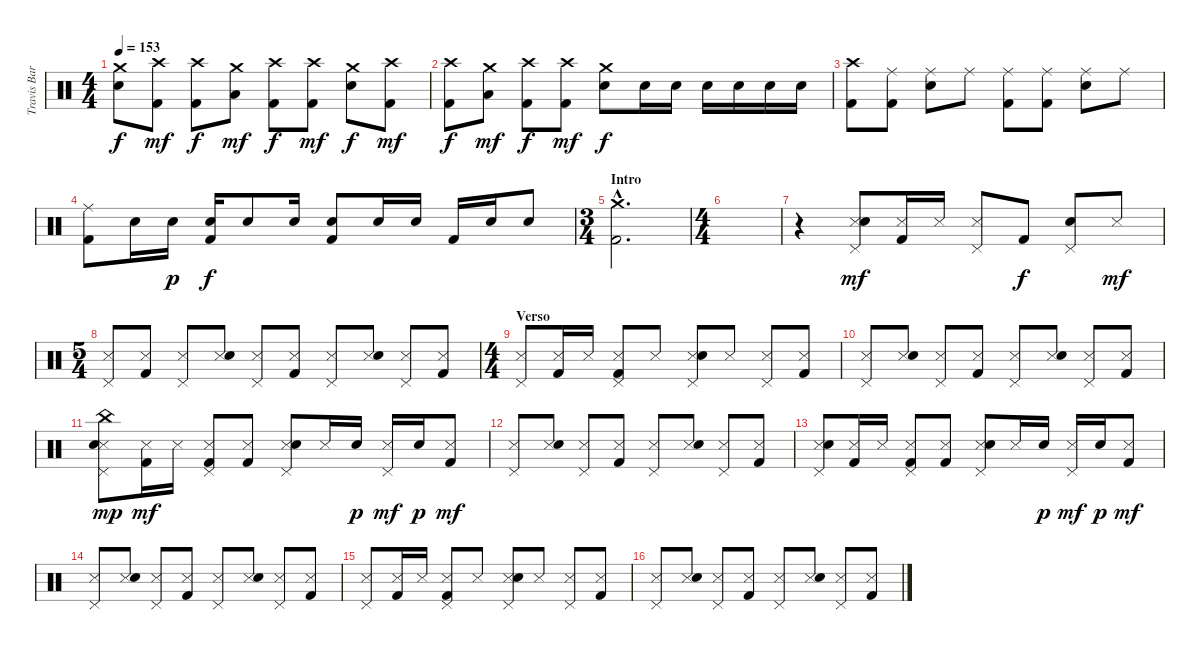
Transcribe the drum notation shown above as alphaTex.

\track ("Travis Barker" "Travis Bar") {instrument percussion}
\staff {score}
\articulation defaults
\ts (4 4)
\tempo 153
\clef neutral
\ks c
("Crash medium (hit)" "Electric Snare (hit)").8{dy f} ("Crash high (hit)" "Kick (hit) 2").8{dy mf} ("Crash high (hit)" "Kick (hit) 2").8{dy f} ("Crash medium (hit)" "Low Tom (hit)").8{dy mf} ("Crash high (hit)" "Kick (hit) 2").8{dy f} ("Crash high (hit)" "Kick (hit) 2").8{dy mf} ("Crash medium (hit)" "Electric Snare (hit)").8{dy f} ("Crash high (hit)" "Kick (hit) 2").8{dy mf} |
("Crash high (hit)" "Kick (hit) 2").8{dy f} ("Crash medium (hit)" "Low Tom (hit)").8{dy mf} ("Crash high (hit)" "Kick (hit) 2").8{dy f} ("Crash high (hit)" "Kick (hit) 2").8{dy mf} ("Crash medium (hit)" "Electric Snare (hit)").8{dy f} "Electric Snare (hit)".16 "Electric Snare (hit)".16 "Electric Snare (hit)".16 "Electric Snare (hit)".16 "Electric Snare (hit)".16 "Electric Snare (hit)".16 |
("Crash high (hit)" "Kick (hit) 2").8 ("Ride (middle)" "Kick (hit) 2").8 ("Ride (middle)" "Electric Snare (hit)").8 "Ride (middle)".8 ("Ride (middle)" "Kick (hit) 2").8 ("Ride (middle)" "Kick (hit) 2").8 ("Ride (middle)" "Electric Snare (hit)").8 "Ride (middle)".8 |
("Ride (middle)" "Kick (hit) 2").8 "Electric Snare (hit)".16 "Electric Snare (hit)".16{dy p} ("Electric Snare (hit)" "Kick (hit) 2").16{dy f} "Electric Snare (hit)".8 "Electric Snare (hit)".16 ("Electric Snare (hit)" "Kick (hit) 2").8 "Electric Snare (hit)".16 "Electric Snare (hit)".16 "Kick (hit) 2".16 "Electric Snare (hit)".16 "Electric Snare (hit)".8 |
\ts (3 4)
\section ("" "Intro")
("Crash medium (hit)"{hac} "Kick (hit) 2"{hac}).2{d} |
\ts (4 4)
|
r.4 ("Snare (side stick) 3" "Electric Snare (hit)" "Pedal Hi-Hat (hit)").8{dy mf} ("Snare (side stick) 3" "Kick (hit) 2").16 "Snare (side stick) 3".16 ("Snare (side stick) 3" "Pedal Hi-Hat (hit)").8 "Kick (hit) 2".8{dy f} ("Electric Snare (hit)" "Pedal Hi-Hat (hit)").8 "Snare (side stick) 3".8{dy mf} |
\ts (5 4)
("Snare (side stick) 3" "Pedal Hi-Hat (hit)").8 ("Snare (side stick) 3" "Kick (hit) 2").8 ("Snare (side stick) 3" "Pedal Hi-Hat (hit)").8 ("Snare (side stick) 3" "Electric Snare (hit)").8 ("Snare (side stick) 3" "Pedal Hi-Hat (hit)").8 ("Snare (side stick) 3" "Kick (hit) 2").8 ("Snare (side stick) 3" "Pedal Hi-Hat (hit)").8 ("Snare (side stick) 3" "Electric Snare (hit)").8 ("Snare (side stick) 3" "Pedal Hi-Hat (hit)").8 ("Snare (side stick) 3" "Kick (hit) 2").8 |
\ts (4 4)
\section ("" "Verso")
("Snare (side stick) 3" "Pedal Hi-Hat (hit)").8 ("Snare (side stick) 3" "Kick (hit) 2").16 "Snare (side stick) 3".16 ("Snare (side stick) 3" "Kick (hit) 2" "Pedal Hi-Hat (hit)").8 "Snare (side stick) 3".8 ("Snare (side stick) 3" "Electric Snare (hit)" "Pedal Hi-Hat (hit)").8 "Snare (side stick) 3".8 ("Snare (side stick) 3" "Pedal Hi-Hat (hit)").8 ("Snare (side stick) 3" "Kick (hit) 2").8 |
("Snare (side stick) 3" "Pedal Hi-Hat (hit)").8 ("Snare (side stick) 3" "Electric Snare (hit)").8 ("Snare (side stick) 3" "Pedal Hi-Hat (hit)").8 ("Snare (side stick) 3" "Kick (hit) 2").8 ("Snare (side stick) 3" "Pedal Hi-Hat (hit)").8 ("Snare (side stick) 3" "Electric Snare (hit)").8 ("Snare (side stick) 3" "Pedal Hi-Hat (hit)").8 ("Snare (side stick) 3" "Kick (hit) 2").8 |
("Snare (side stick) 3" "Electric Snare (hit)" "China (hit)" "Pedal Hi-Hat (hit)").8{dy mp} ("Snare (side stick) 3" "Kick (hit) 2").16{dy mf} "Snare (side stick) 3".16 ("Snare (side stick) 3" "Kick (hit) 2" "Pedal Hi-Hat (hit)").8 ("Snare (side stick) 3" "Kick (hit) 2").8 ("Snare (side stick) 3" "Electric Snare (hit)" "Pedal Hi-Hat (hit)").8 "Snare (side stick) 3".16 "Electric Snare (hit)".16{dy p} ("Snare (side stick) 3" "Pedal Hi-Hat (hit)").16{dy mf} "Electric Snare (hit)".16{dy p} ("Snare (side stick) 3" "Kick (hit) 2").8{dy mf} |
("Snare (side stick) 3" "Pedal Hi-Hat (hit)").8 ("Snare (side stick) 3" "Electric Snare (hit)").8 ("Snare (side stick) 3" "Pedal Hi-Hat (hit)").8 ("Snare (side stick) 3" "Kick (hit) 2").8 ("Snare (side stick) 3" "Pedal Hi-Hat (hit)").8 ("Snare (side stick) 3" "Electric Snare (hit)").8 ("Snare (side stick) 3" "Pedal Hi-Hat (hit)").8 ("Snare (side stick) 3" "Kick (hit) 2").8 |
("Snare (side stick) 3" "Electric Snare (hit)" "Pedal Hi-Hat (hit)").8 ("Snare (side stick) 3" "Kick (hit) 2").16 "Snare (side stick) 3".16 ("Snare (side stick) 3" "Kick (hit) 2" "Pedal Hi-Hat (hit)").8 ("Snare (side stick) 3" "Kick (hit) 2").8 ("Snare (side stick) 3" "Electric Snare (hit)" "Pedal Hi-Hat (hit)").8 "Snare (side stick) 3".16 "Electric Snare (hit)".16{dy p} ("Snare (side stick) 3" "Pedal Hi-Hat (hit)").16{dy mf} "Electric Snare (hit)".16{dy p} ("Snare (side stick) 3" "Kick (hit) 2").8{dy mf} |
("Snare (side stick) 3" "Pedal Hi-Hat (hit)").8 ("Snare (side stick) 3" "Electric Snare (hit)").8 ("Snare (side stick) 3" "Pedal Hi-Hat (hit)").8 ("Snare (side stick) 3" "Kick (hit) 2").8 ("Snare (side stick) 3" "Pedal Hi-Hat (hit)").8 ("Snare (side stick) 3" "Electric Snare (hit)").8 ("Snare (side stick) 3" "Pedal Hi-Hat (hit)").8 ("Snare (side stick) 3" "Kick (hit) 2").8 |
("Snare (side stick) 3" "Pedal Hi-Hat (hit)").8 ("Snare (side stick) 3" "Kick (hit) 2").16 "Snare (side stick) 3".16 ("Snare (side stick) 3" "Kick (hit) 2" "Pedal Hi-Hat (hit)").8 "Snare (side stick) 3".8 ("Snare (side stick) 3" "Electric Snare (hit)" "Pedal Hi-Hat (hit)").8 "Snare (side stick) 3".8 ("Snare (side stick) 3" "Pedal Hi-Hat (hit)").8 ("Snare (side stick) 3" "Kick (hit) 2").8 |
("Snare (side stick) 3" "Pedal Hi-Hat (hit)").8 ("Snare (side stick) 3" "Electric Snare (hit)").8 ("Snare (side stick) 3" "Pedal Hi-Hat (hit)").8 ("Snare (side stick) 3" "Kick (hit) 2").8 ("Snare (side stick) 3" "Pedal Hi-Hat (hit)").8 ("Snare (side stick) 3" "Electric Snare (hit)").8 ("Snare (side stick) 3" "Pedal Hi-Hat (hit)").8 ("Snare (side stick) 3" "Kick (hit) 2").8
